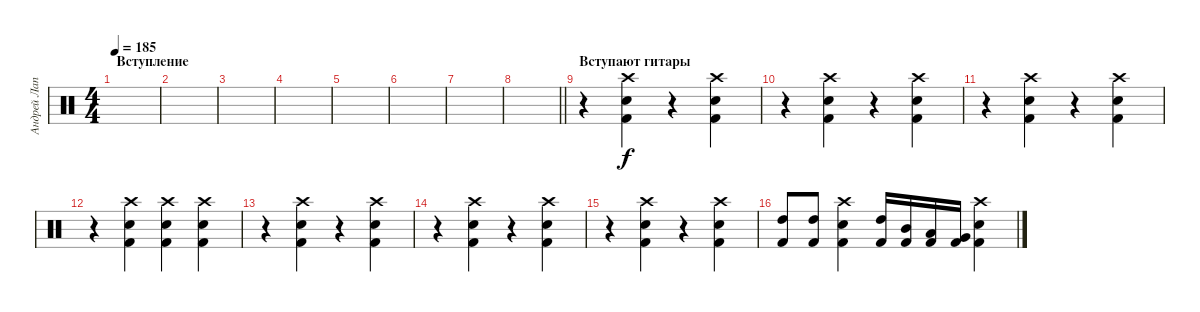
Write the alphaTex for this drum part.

\track ("Андрей Лаптев" "Андрей Лап") {instrument percussion}
\staff {score}
\articulation defaults
\ts (4 4)
\section ("" "Вступление")
\tempo 185
\clef neutral
\ks c
|
|
|
|
|
|
|
\barLineRight lightlight
|
\section ("" "Вступают гитары")
r.4 ("Crash high (hit)" "Kick (hit) 2" "Electric Snare (hit)").4 r.4 ("Crash high (hit)" "Kick (hit) 2" "Electric Snare (hit)").4 |
r.4 ("Crash high (hit)" "Kick (hit) 2" "Electric Snare (hit)").4 r.4 ("Crash high (hit)" "Kick (hit) 2" "Electric Snare (hit)").4 |
r.4 ("Crash high (hit)" "Kick (hit) 2" "Electric Snare (hit)").4 r.4 ("Crash high (hit)" "Kick (hit) 2" "Electric Snare (hit)").4 |
r.4 ("Crash high (hit)" "Kick (hit) 2" "Electric Snare (hit)").4 ("Crash high (hit)" "Kick (hit) 2" "Electric Snare (hit)").4 ("Crash high (hit)" "Kick (hit) 2" "Electric Snare (hit)").4 |
r.4 ("Crash high (hit)" "Kick (hit) 2" "Electric Snare (hit)").4 r.4 ("Crash high (hit)" "Kick (hit) 2" "Electric Snare (hit)").4 |
r.4 ("Crash high (hit)" "Kick (hit) 2" "Electric Snare (hit)").4 r.4 ("Crash high (hit)" "Kick (hit) 2" "Electric Snare (hit)").4 |
r.4 ("Crash high (hit)" "Kick (hit) 2" "Electric Snare (hit)").4 r.4 ("Crash high (hit)" "Kick (hit) 2" "Electric Snare (hit)").4 |
("High Tom (hit)" "Kick (hit) 2").8 ("High Tom (hit)" "Kick (hit) 2").8 ("Crash high (hit)" "Kick (hit) 2" "Electric Snare (hit)").4 ("High Tom (hit)" "Kick (hit) 2").16 ("Mid Tom (hit)" "Kick (hit) 2").16 ("Low Tom (hit)" "Kick (hit) 2").16 ("Very Low Tom (hit)" "Kick (hit) 2").16 ("Crash high (hit)" "Kick (hit) 2" "Electric Snare (hit)").4
